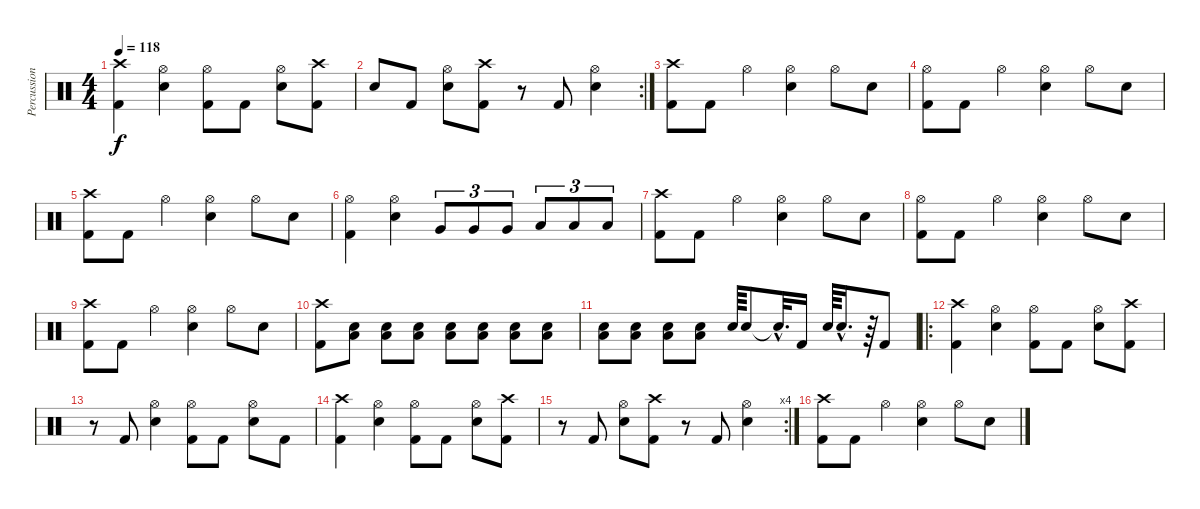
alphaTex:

\track ("Percussion" "Percussion") {instrument percussion}
\staff {score}
\articulation defaults
\ts (4 4)
\tempo 118
\clef neutral
\ks c
("Crash high (hit)" "Kick (hit) 2").4{dy f} ("Hi-Hat (open)" "Snare (hit) 2").4 ("Hi-Hat (open)" "Kick (hit) 2").8 "Kick (hit) 2".8 ("Hi-Hat (open)" "Snare (hit) 2").8 ("Crash high (hit)" "Kick (hit) 2").8 |
\rc 2 "Snare (hit)".8 "Kick (hit) 2".8
("Hi-Hat (open)" "Snare (hit) 2").8 ("Crash high (hit)" "Kick (hit) 2").8 r.8 "Kick (hit) 2".8 ("Hi-Hat (open)" "Snare (hit) 2").4 |
("Crash high (hit)" "Kick (hit) 2").8 "Kick (hit) 2".8 "Hi-Hat (open)".4 ("Hi-Hat (open)" "Snare (hit) 2").4 "Hi-Hat (open)".8 "Snare (hit) 2".8 |
("Hi-Hat (open)" "Kick (hit) 2").8 "Kick (hit) 2".8 "Hi-Hat (open)".4 ("Hi-Hat (open)" "Snare (hit) 2").4 "Hi-Hat (open)".8 "Snare (hit) 2".8 |
("Crash high (hit)" "Kick (hit) 2").8 "Kick (hit) 2".8 "Hi-Hat (open)".4 ("Hi-Hat (open)" "Snare (hit) 2").4 "Hi-Hat (open)".8 "Snare (hit) 2".8 |
("Hi-Hat (open)" "Kick (hit) 2").4 ("Hi-Hat (open)" "Snare (hit) 2").4 "Very Low Tom (hit)".8{tu (3 2)} "Very Low Tom (hit)".8{tu (3 2)} "Very Low Tom (hit)".8{tu (3 2)} "Low Floor Tom (hit)".8{tu (3 2)} "Low Floor Tom (hit)".8{tu (3 2)} "Low Floor Tom (hit)".8{tu (3 2)} |
("Crash high (hit)" "Kick (hit) 2").8 "Kick (hit) 2".8 "Hi-Hat (open)".4 ("Hi-Hat (open)" "Snare (hit) 2").4 "Hi-Hat (open)".8 "Snare (hit) 2".8 |
("Hi-Hat (open)" "Kick (hit) 2").8 "Kick (hit) 2".8 "Hi-Hat (open)".4 ("Hi-Hat (open)" "Snare (hit) 2").4 "Hi-Hat (open)".8 "Snare (hit) 2".8 |
("Crash high (hit)" "Kick (hit) 2").8 "Kick (hit) 2".8 "Hi-Hat (open)".4 ("Hi-Hat (open)" "Snare (hit) 2").4 "Hi-Hat (open)".8 "Snare (hit) 2".8 |
("Crash high (hit)" "Kick (hit) 2").8 ("Snare (hit) 2" "Low Floor Tom (hit)").8 ("Snare (hit) 2" "Low Floor Tom (hit)").8 ("Snare (hit) 2" "Low Floor Tom (hit)").8 ("Snare (hit) 2" "Low Floor Tom (hit)").8 ("Snare (hit) 2" "Low Floor Tom (hit)").8 ("Snare (hit) 2" "Low Floor Tom (hit)").8 ("Snare (hit) 2" "Low Floor Tom (hit)").8 |
("Snare (hit) 2" "Low Floor Tom (hit)").8 ("Snare (hit) 2" "Low Floor Tom (hit)").8 ("Snare (hit) 2" "Low Floor Tom (hit)").8 ("Snare (hit) 2" "Low Floor Tom (hit)").8 "Snare (hit) 2".64 "Snare (hit) 2".8 "Snare (hit)"{hac t}.32{d} "Kick (hit) 2".16 "Snare (hit) 2".64 "Snare (hit) 2"{hac}.16{d} r.64 "Kick (hit) 2".8 |
\ro
("Crash high (hit)" "Kick (hit) 2").4 ("Hi-Hat (open)" "Snare (hit) 2").4 ("Hi-Hat (open)" "Kick (hit) 2").8 "Kick (hit) 2".8 ("Hi-Hat (open)" "Snare (hit) 2").8 ("Crash high (hit)" "Kick (hit) 2").8 |
r.8 "Kick (hit) 2".8 ("Hi-Hat (open)" "Snare (hit) 2").4 ("Hi-Hat (open)" "Kick (hit) 2").8 "Kick (hit) 2".8 ("Hi-Hat (open)" "Snare (hit) 2").8 "Kick (hit) 2".8 |
("Crash high (hit)" "Kick (hit) 2").4 ("Hi-Hat (open)" "Snare (hit) 2").4 ("Hi-Hat (open)" "Kick (hit) 2").8 "Kick (hit) 2".8 ("Hi-Hat (open)" "Snare (hit) 2").8 ("Crash high (hit)" "Kick (hit) 2").8 |
\rc 4
r.8 "Kick (hit) 2".8 ("Hi-Hat (open)" "Snare (hit) 2").8 ("Crash high (hit)" "Kick (hit) 2").8 r.8 "Kick (hit) 2".8 ("Hi-Hat (open)" "Snare (hit) 2").4 |
("Crash high (hit)" "Kick (hit) 2").8 "Kick (hit) 2".8 "Hi-Hat (open)".4 ("Hi-Hat (open)" "Snare (hit) 2").4 "Hi-Hat (open)".8 "Snare (hit) 2".8
